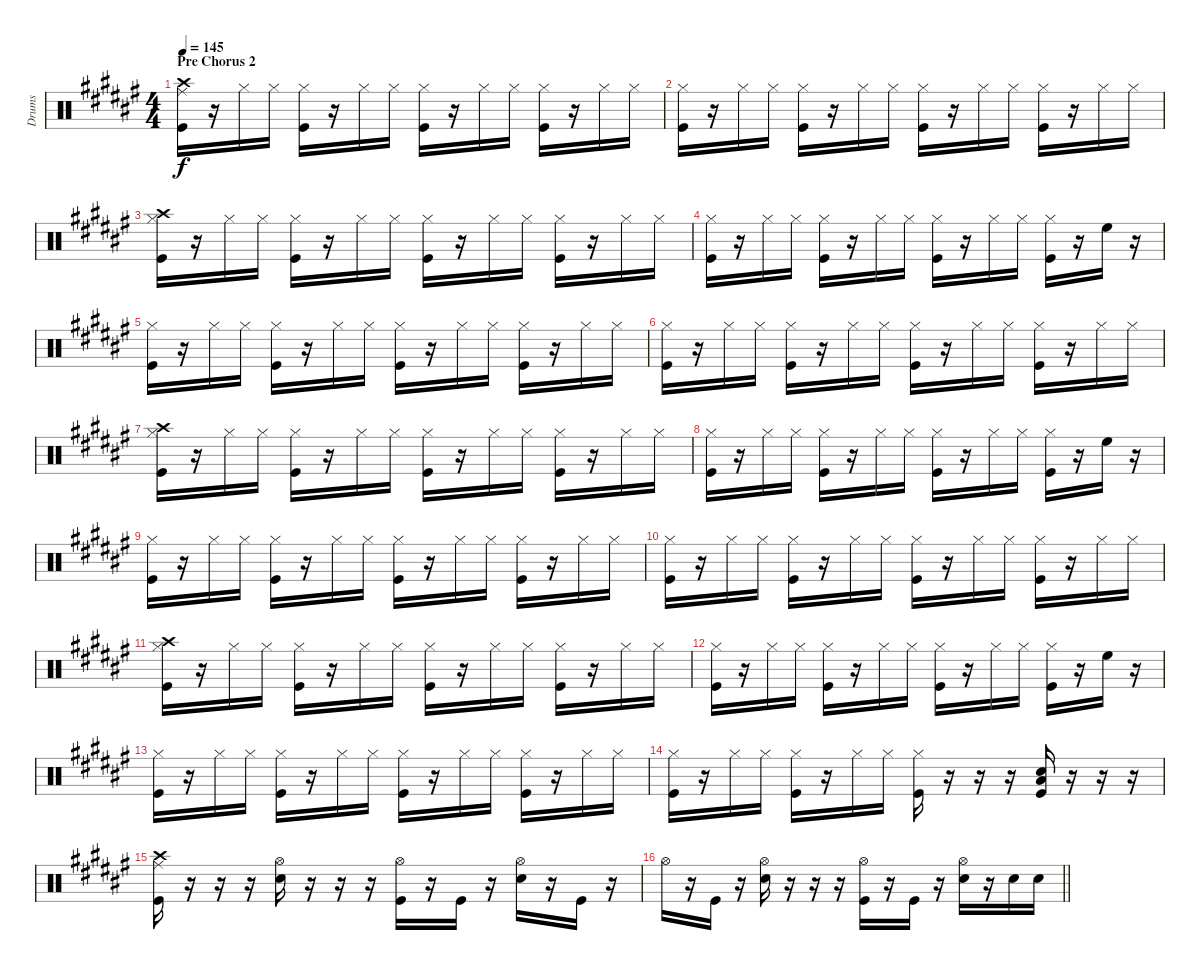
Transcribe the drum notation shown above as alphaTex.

\track ("Drums" "Drums") {instrument percussion}
\staff {score}
\articulation defaults
\ts (4 4)
\section ("" "Pre Chorus 2")
\tempo 145
\clef neutral
\ks f#
("Crash high (hit)" "Kick (hit)" "Ride (middle)").16{dy f} r.16 "Hi-Hat (closed)".16 "Hi-Hat (closed)".16 ("Hi-Hat (closed)" "Kick (hit)").16 r.16 "Hi-Hat (closed)".16 "Hi-Hat (closed)".16 ("Hi-Hat (closed)" "Kick (hit)").16 r.16 "Hi-Hat (closed)".16 "Hi-Hat (closed)".16 ("Hi-Hat (closed)" "Kick (hit)").16 r.16 "Hi-Hat (closed)".16 "Hi-Hat (closed)".16 |
("Hi-Hat (closed)" "Kick (hit)").16 r.16 "Hi-Hat (closed)".16 "Hi-Hat (closed)".16 ("Hi-Hat (closed)" "Kick (hit)").16 r.16 "Hi-Hat (closed)".16 "Hi-Hat (closed)".16 ("Hi-Hat (closed)" "Kick (hit)").16 r.16 "Hi-Hat (closed)".16 "Hi-Hat (closed)".16 ("Hi-Hat (closed)" "Kick (hit)").16 r.16 "Hi-Hat (closed)".16 "Hi-Hat (closed)".16 |
("Hi-Hat (closed)" "Kick (hit)" "Crash high (hit)").16 r.16 "Hi-Hat (closed)".16 "Hi-Hat (closed)".16 ("Hi-Hat (closed)" "Kick (hit)").16 r.16 "Hi-Hat (closed)".16 "Hi-Hat (closed)".16 ("Hi-Hat (closed)" "Kick (hit)").16 r.16 "Hi-Hat (closed)".16 "Hi-Hat (closed)".16 ("Hi-Hat (closed)" "Kick (hit)").16 r.16 "Hi-Hat (closed)".16 "Hi-Hat (closed)".16 |
("Hi-Hat (closed)" "Kick (hit)").16 r.16 "Hi-Hat (closed)".16 "Hi-Hat (closed)".16 ("Hi-Hat (closed)" "Kick (hit)").16 r.16 "Hi-Hat (closed)".16 "Hi-Hat (closed)".16 ("Hi-Hat (closed)" "Kick (hit)").16 r.16 "Hi-Hat (closed)".16 "Hi-Hat (closed)".16 ("Hi-Hat (closed)" "Kick (hit)").16 r.16 "High Floor Tom (hit)".16 r.16 |
("Hi-Hat (closed)" "Kick (hit)").16 r.16 "Hi-Hat (closed)".16 "Hi-Hat (closed)".16 ("Hi-Hat (closed)" "Kick (hit)").16 r.16 "Hi-Hat (closed)".16 "Hi-Hat (closed)".16 ("Hi-Hat (closed)" "Kick (hit)").16 r.16 "Hi-Hat (closed)".16 "Hi-Hat (closed)".16 ("Hi-Hat (closed)" "Kick (hit)").16 r.16 "Hi-Hat (closed)".16 "Hi-Hat (closed)".16 |
("Hi-Hat (closed)" "Kick (hit)").16 r.16 "Hi-Hat (closed)".16 "Hi-Hat (closed)".16 ("Hi-Hat (closed)" "Kick (hit)").16 r.16 "Hi-Hat (closed)".16 "Hi-Hat (closed)".16 ("Hi-Hat (closed)" "Kick (hit)").16 r.16 "Hi-Hat (closed)".16 "Hi-Hat (closed)".16 ("Hi-Hat (closed)" "Kick (hit)").16 r.16 "Hi-Hat (closed)".16 "Hi-Hat (closed)".16 |
("Hi-Hat (closed)" "Kick (hit)" "Crash high (hit)").16 r.16 "Hi-Hat (closed)".16 "Hi-Hat (closed)".16 ("Hi-Hat (closed)" "Kick (hit)").16 r.16 "Hi-Hat (closed)".16 "Hi-Hat (closed)".16 ("Hi-Hat (closed)" "Kick (hit)").16 r.16 "Hi-Hat (closed)".16 "Hi-Hat (closed)".16 ("Hi-Hat (closed)" "Kick (hit)").16 r.16 "Hi-Hat (closed)".16 "Hi-Hat (closed)".16 |
("Hi-Hat (closed)" "Kick (hit)").16 r.16 "Hi-Hat (closed)".16 "Hi-Hat (closed)".16 ("Hi-Hat (closed)" "Kick (hit)").16 r.16 "Hi-Hat (closed)".16 "Hi-Hat (closed)".16 ("Hi-Hat (closed)" "Kick (hit)").16 r.16 "Hi-Hat (closed)".16 "Hi-Hat (closed)".16 ("Hi-Hat (closed)" "Kick (hit)").16 r.16 "High Floor Tom (hit)".16 r.16 |
("Hi-Hat (closed)" "Kick (hit)").16 r.16 "Hi-Hat (closed)".16 "Hi-Hat (closed)".16 ("Hi-Hat (closed)" "Kick (hit)").16 r.16 "Hi-Hat (closed)".16 "Hi-Hat (closed)".16 ("Hi-Hat (closed)" "Kick (hit)").16 r.16 "Hi-Hat (closed)".16 "Hi-Hat (closed)".16 ("Hi-Hat (closed)" "Kick (hit)").16 r.16 "Hi-Hat (closed)".16 "Hi-Hat (closed)".16 |
("Hi-Hat (closed)" "Kick (hit)").16 r.16 "Hi-Hat (closed)".16 "Hi-Hat (closed)".16 ("Hi-Hat (closed)" "Kick (hit)").16 r.16 "Hi-Hat (closed)".16 "Hi-Hat (closed)".16 ("Hi-Hat (closed)" "Kick (hit)").16 r.16 "Hi-Hat (closed)".16 "Hi-Hat (closed)".16 ("Hi-Hat (closed)" "Kick (hit)").16 r.16 "Hi-Hat (closed)".16 "Hi-Hat (closed)".16 |
("Hi-Hat (closed)" "Kick (hit)" "Crash high (hit)").16 r.16 "Hi-Hat (closed)".16 "Hi-Hat (closed)".16 ("Hi-Hat (closed)" "Kick (hit)").16 r.16 "Hi-Hat (closed)".16 "Hi-Hat (closed)".16 ("Hi-Hat (closed)" "Kick (hit)").16 r.16 "Hi-Hat (closed)".16 "Hi-Hat (closed)".16 ("Hi-Hat (closed)" "Kick (hit)").16 r.16 "Hi-Hat (closed)".16 "Hi-Hat (closed)".16 |
("Hi-Hat (closed)" "Kick (hit)").16 r.16 "Hi-Hat (closed)".16 "Hi-Hat (closed)".16 ("Hi-Hat (closed)" "Kick (hit)").16 r.16 "Hi-Hat (closed)".16 "Hi-Hat (closed)".16 ("Hi-Hat (closed)" "Kick (hit)").16 r.16 "Hi-Hat (closed)".16 "Hi-Hat (closed)".16 ("Hi-Hat (closed)" "Kick (hit)").16 r.16 "High Floor Tom (hit)".16 r.16 |
("Hi-Hat (closed)" "Kick (hit)").16 r.16 "Hi-Hat (closed)".16 "Hi-Hat (closed)".16 ("Hi-Hat (closed)" "Kick (hit)").16 r.16 "Hi-Hat (closed)".16 "Hi-Hat (closed)".16 ("Hi-Hat (closed)" "Kick (hit)").16 r.16 "Hi-Hat (closed)".16 "Hi-Hat (closed)".16 ("Hi-Hat (closed)" "Kick (hit)").16 r.16 "Hi-Hat (closed)".16 "Hi-Hat (closed)".16 |
("Hi-Hat (closed)" "Kick (hit)").16 r.16 "Hi-Hat (closed)".16 "Hi-Hat (closed)".16 ("Hi-Hat (closed)" "Kick (hit)").16 r.16 "Hi-Hat (closed)".16 "Hi-Hat (closed)".16 ("Hi-Hat (closed)" "Kick (hit)").16 r.16 r.16 r.16 ("Snare (hit) 2" "Kick (hit)" "Low Floor Tom (hit)").16 r.16 r.16 r.16 |
("Ride (middle)" "Kick (hit)" "Crash high (hit)").16 r.16 r.16 r.16 ("Hi-Hat (open)" "Snare (hit) 2").16 r.16 r.16 r.16 ("Hi-Hat (open)" "Kick (hit)").16 r.16 "Kick (hit)".16 r.16 ("Hi-Hat (open)" "Snare (hit) 2").16 r.16 "Kick (hit)".16 r.16 |
\barLineRight lightlight "Hi-Hat (open)".16
r.16 "Kick (hit)".16 r.16 ("Hi-Hat (open)" "Snare (hit) 2").16 r.16 r.16 r.16 ("Hi-Hat (open)" "Kick (hit)").16 r.16 "Kick (hit)".16 r.16 ("Hi-Hat (open)" "Snare (hit) 2").16 r.16 "Snare (hit) 2".16 "Snare (hit) 2".16
